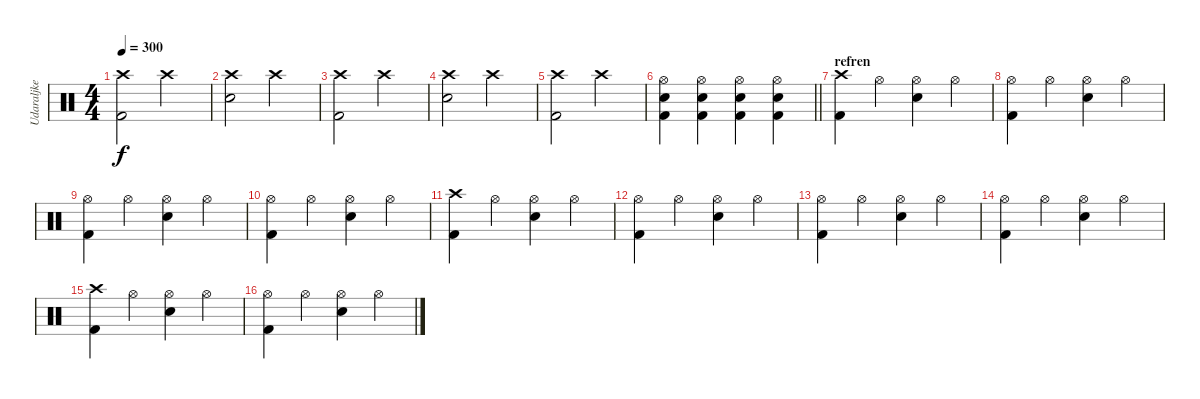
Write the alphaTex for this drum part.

\track ("Udaraljke" "Udaraljke") {instrument percussion}
\staff {score}
\articulation defaults
\ts (4 4)
\tempo 300
\clef neutral
\ks c
("Crash high (hit)" "Kick (hit) 2").2{dy f} "Crash high (hit)".2 |
("Crash high (hit)" "Electric Snare (hit)").2 "Crash high (hit)".2 |
("Crash high (hit)" "Kick (hit) 2").2 "Crash high (hit)".2 |
("Crash high (hit)" "Electric Snare (hit)").2 "Crash high (hit)".2 |
("Crash high (hit)" "Kick (hit) 2").2 "Crash high (hit)".2 |
\barLineRight lightlight
("Kick (hit) 2" "Hi-Hat (open)" "Electric Snare (hit)").4 ("Hi-Hat (open)" "Kick (hit) 2" "Electric Snare (hit)").4 ("Kick (hit) 2" "Hi-Hat (open)" "Electric Snare (hit)").4 ("Hi-Hat (open)" "Kick (hit) 2" "Electric Snare (hit)").4 |
\section ("" "refren")
("Crash high (hit)" "Kick (hit) 2").4 "Hi-Hat (open)".4 ("Hi-Hat (open)" "Electric Snare (hit)").4 "Hi-Hat (open)".4 |
("Hi-Hat (open)" "Kick (hit) 2").4 "Hi-Hat (open)".4 ("Hi-Hat (open)" "Electric Snare (hit)").4 "Hi-Hat (open)".4 |
("Hi-Hat (open)" "Kick (hit) 2").4 "Hi-Hat (open)".4 ("Hi-Hat (open)" "Electric Snare (hit)").4 "Hi-Hat (open)".4 |
("Hi-Hat (open)" "Kick (hit) 2").4 "Hi-Hat (open)".4 ("Hi-Hat (open)" "Electric Snare (hit)").4 "Hi-Hat (open)".4 |
("Crash high (hit)" "Kick (hit) 2").4 "Hi-Hat (open)".4 ("Hi-Hat (open)" "Electric Snare (hit)").4 "Hi-Hat (open)".4 |
("Hi-Hat (open)" "Kick (hit) 2").4 "Hi-Hat (open)".4 ("Hi-Hat (open)" "Electric Snare (hit)").4 "Hi-Hat (open)".4 |
("Hi-Hat (open)" "Kick (hit) 2").4 "Hi-Hat (open)".4 ("Hi-Hat (open)" "Electric Snare (hit)").4 "Hi-Hat (open)".4 |
("Hi-Hat (open)" "Kick (hit) 2").4 "Hi-Hat (open)".4 ("Hi-Hat (open)" "Electric Snare (hit)").4 "Hi-Hat (open)".4 |
("Crash high (hit)" "Kick (hit) 2").4 "Hi-Hat (open)".4 ("Hi-Hat (open)" "Electric Snare (hit)").4 "Hi-Hat (open)".4 |
("Hi-Hat (open)" "Kick (hit) 2").4 "Hi-Hat (open)".4 ("Hi-Hat (open)" "Electric Snare (hit)").4 "Hi-Hat (open)".4
